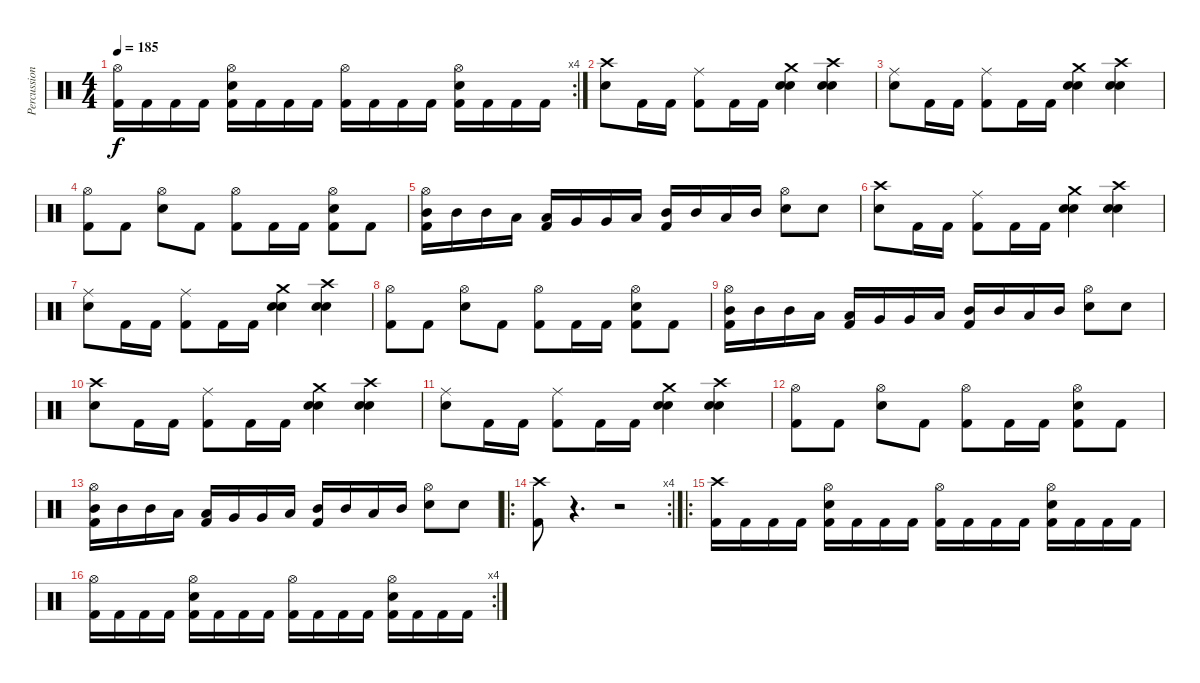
\track ("Percussion" "Percussion") {instrument percussion}
\staff {score}
\articulation defaults
\rc 4
\ts (4 4)
\tempo 185
\clef neutral
\ks c
("Hi-Hat (open)" "Kick (hit) 2").16{dy f} "Kick (hit) 2".16 "Kick (hit) 2".16 "Kick (hit) 2".16 ("Hi-Hat (open)" "Electric Snare (hit)" "Kick (hit) 2").16 "Kick (hit) 2".16 "Kick (hit) 2".16 "Kick (hit) 2".16 ("Hi-Hat (open)" "Kick (hit) 2").16 "Kick (hit) 2".16 "Kick (hit) 2".16 "Kick (hit) 2".16 ("Hi-Hat (open)" "Electric Snare (hit)" "Kick (hit) 2").16 "Kick (hit) 2".16 "Kick (hit) 2".16 "Kick (hit) 2".16 |
("Crash high (hit)" "Electric Snare (hit)").8 "Kick (hit) 2".16 "Kick (hit) 2".16 ("Ride (middle)" "Kick (hit) 2").8 "Kick (hit) 2".16 "Kick (hit) 2".16 ("Crash medium (hit)" "Electric Snare (hit)" "Snare (hit) 2").4 ("Crash high (hit)" "Electric Snare (hit)" "Snare (hit) 2").4 |
("Ride (middle)" "Electric Snare (hit)").8 "Kick (hit) 2".16 "Kick (hit) 2".16 ("Ride (middle)" "Kick (hit) 2").8 "Kick (hit) 2".16 "Kick (hit) 2".16 ("Crash medium (hit)" "Electric Snare (hit)" "Snare (hit) 2").4 ("Crash high (hit)" "Electric Snare (hit)" "Snare (hit) 2").4 |
("Hi-Hat (open)" "Kick (hit) 2").8 "Kick (hit) 2".8 ("Hi-Hat (open)" "Electric Snare (hit)").8 "Kick (hit) 2".8 ("Hi-Hat (open)" "Kick (hit) 2").8 "Kick (hit) 2".16 "Kick (hit) 2".16 ("Hi-Hat (open)" "Electric Snare (hit)" "Kick (hit) 2").8 "Kick (hit) 2".8 |
("Hi-Hat (open)" "Mid Tom (hit)" "Kick (hit) 2").16 "Mid Tom (hit)".16 "Mid Tom (hit)".16 "Low Tom (hit)".16 ("Low Tom (hit)" "Kick (hit) 2").16 "Very Low Tom (hit)".16 "Very Low Tom (hit)".16 "Low Tom (hit)".16 ("Mid Tom (hit)" "Kick (hit) 2").16 "Mid Tom (hit)".16 "Low Tom (hit)".16 "Mid Tom (hit)".16 ("Hi-Hat (open)" "Electric Snare (hit)").8 "Electric Snare (hit)".8 |
("Crash high (hit)" "Electric Snare (hit)").8 "Kick (hit) 2".16 "Kick (hit) 2".16 ("Ride (middle)" "Kick (hit) 2").8 "Kick (hit) 2".16 "Kick (hit) 2".16 ("Crash medium (hit)" "Electric Snare (hit)" "Snare (hit) 2").4 ("Crash high (hit)" "Electric Snare (hit)" "Snare (hit) 2").4 |
("Ride (middle)" "Electric Snare (hit)").8 "Kick (hit) 2".16 "Kick (hit) 2".16 ("Ride (middle)" "Kick (hit) 2").8 "Kick (hit) 2".16 "Kick (hit) 2".16 ("Crash medium (hit)" "Electric Snare (hit)" "Snare (hit) 2").4 ("Crash high (hit)" "Electric Snare (hit)" "Snare (hit) 2").4 |
("Hi-Hat (open)" "Kick (hit) 2").8 "Kick (hit) 2".8 ("Hi-Hat (open)" "Electric Snare (hit)").8 "Kick (hit) 2".8 ("Hi-Hat (open)" "Kick (hit) 2").8 "Kick (hit) 2".16 "Kick (hit) 2".16 ("Hi-Hat (open)" "Electric Snare (hit)" "Kick (hit) 2").8 "Kick (hit) 2".8 |
("Hi-Hat (open)" "Mid Tom (hit)" "Kick (hit) 2").16 "Mid Tom (hit)".16 "Mid Tom (hit)".16 "Low Tom (hit)".16 ("Low Tom (hit)" "Kick (hit) 2").16 "Very Low Tom (hit)".16 "Very Low Tom (hit)".16 "Low Tom (hit)".16 ("Mid Tom (hit)" "Kick (hit) 2").16 "Mid Tom (hit)".16 "Low Tom (hit)".16 "Mid Tom (hit)".16 ("Hi-Hat (open)" "Electric Snare (hit)").8 "Electric Snare (hit)".8 |
("Crash high (hit)" "Electric Snare (hit)").8 "Kick (hit) 2".16 "Kick (hit) 2".16 ("Ride (middle)" "Kick (hit) 2").8 "Kick (hit) 2".16 "Kick (hit) 2".16 ("Crash medium (hit)" "Electric Snare (hit)" "Snare (hit) 2").4 ("Crash high (hit)" "Electric Snare (hit)" "Snare (hit) 2").4 |
("Ride (middle)" "Electric Snare (hit)").8 "Kick (hit) 2".16 "Kick (hit) 2".16 ("Ride (middle)" "Kick (hit) 2").8 "Kick (hit) 2".16 "Kick (hit) 2".16 ("Crash medium (hit)" "Electric Snare (hit)" "Snare (hit) 2").4 ("Crash high (hit)" "Electric Snare (hit)" "Snare (hit) 2").4 |
("Hi-Hat (open)" "Kick (hit) 2").8 "Kick (hit) 2".8 ("Hi-Hat (open)" "Electric Snare (hit)").8 "Kick (hit) 2".8 ("Hi-Hat (open)" "Kick (hit) 2").8 "Kick (hit) 2".16 "Kick (hit) 2".16 ("Hi-Hat (open)" "Electric Snare (hit)" "Kick (hit) 2").8 "Kick (hit) 2".8 |
("Hi-Hat (open)" "Mid Tom (hit)" "Kick (hit) 2").16 "Mid Tom (hit)".16 "Mid Tom (hit)".16 "Low Tom (hit)".16 ("Low Tom (hit)" "Kick (hit) 2").16 "Very Low Tom (hit)".16 "Very Low Tom (hit)".16 "Low Tom (hit)".16 ("Mid Tom (hit)" "Kick (hit) 2").16 "Mid Tom (hit)".16 "Low Tom (hit)".16 "Mid Tom (hit)".16 ("Hi-Hat (open)" "Electric Snare (hit)").8 "Electric Snare (hit)".8 |
\ro
\rc 4
("Crash high (hit)" "Kick (hit) 2").8 r.4{d} r.2 |
\ro
("Crash high (hit)" "Kick (hit) 2").16 "Kick (hit) 2".16 "Kick (hit) 2".16 "Kick (hit) 2".16 ("Hi-Hat (open)" "Electric Snare (hit)" "Kick (hit) 2").16 "Kick (hit) 2".16 "Kick (hit) 2".16 "Kick (hit) 2".16 ("Hi-Hat (open)" "Kick (hit) 2").16 "Kick (hit) 2".16 "Kick (hit) 2".16 "Kick (hit) 2".16 ("Hi-Hat (open)" "Electric Snare (hit)" "Kick (hit) 2").16 "Kick (hit) 2".16 "Kick (hit) 2".16 "Kick (hit) 2".16 |
\rc 4
("Hi-Hat (open)" "Kick (hit) 2").16 "Kick (hit) 2".16 "Kick (hit) 2".16 "Kick (hit) 2".16 ("Hi-Hat (open)" "Electric Snare (hit)" "Kick (hit) 2").16 "Kick (hit) 2".16 "Kick (hit) 2".16 "Kick (hit) 2".16 ("Hi-Hat (open)" "Kick (hit) 2").16 "Kick (hit) 2".16 "Kick (hit) 2".16 "Kick (hit) 2".16 ("Hi-Hat (open)" "Electric Snare (hit)" "Kick (hit) 2").16 "Kick (hit) 2".16 "Kick (hit) 2".16 "Kick (hit) 2".16
